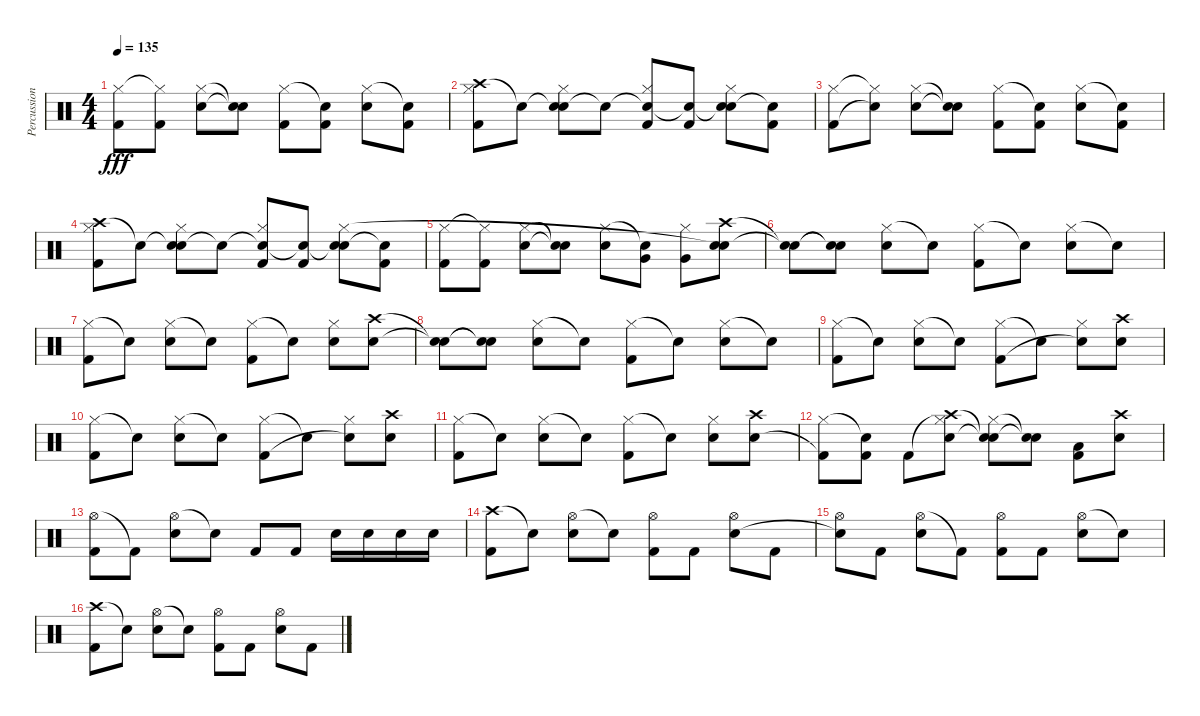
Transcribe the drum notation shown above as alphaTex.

\track ("Percussion" "Percussion") {instrument percussion}
\staff {score}
\articulation defaults
\ts (4 4)
\tempo 135
\clef neutral
\ks c
("Kick (hit) 2" "Hi-Hat (closed)").8{dy fff} ("Kick (hit) 2" "Hi-Hat (closed)"{t}).8 ("Electric Snare (hit)" "Hi-Hat (closed)").8 ("Snare (hit)"{t} "Snare (hit)"{t}).8 ("Kick (hit) 2" "Hi-Hat (closed)").8 ("Kick (hit) 2" "Snare (hit)"{t}).8 ("Electric Snare (hit)" "Hi-Hat (closed)").8 ("Kick (hit) 2" "Snare (hit)"{t}).8 |
("Crash high (hit)" "Kick (hit) 2" "Hi-Hat (closed)").8 "Snare (hit)"{t}.8 ("Snare (hit)"{t} "Electric Snare (hit)" "Hi-Hat (closed)").8 "Snare (hit)"{t}.8 ("Snare (hit)"{t} "Kick (hit) 2" "Hi-Hat (closed)").8 ("Snare (hit)"{t} "Kick (hit) 2").8 ("Snare (hit)"{t} "Electric Snare (hit)" "Hi-Hat (closed)").8 ("Snare (hit)"{t} "Kick (hit) 2").8 |
("Kick (hit) 2" "Hi-Hat (closed)").8 ("Snare (hit)"{t} "Hi-Hat (closed)"{t}).8 ("Electric Snare (hit)" "Hi-Hat (closed)").8 ("Snare (hit)"{t} "Snare (hit)"{t}).8 ("Kick (hit) 2" "Hi-Hat (closed)").8 ("Kick (hit) 2" "Snare (hit)"{t}).8 ("Electric Snare (hit)" "Hi-Hat (closed)").8 ("Kick (hit) 2" "Snare (hit)"{t}).8 |
("Crash high (hit)" "Kick (hit) 2" "Hi-Hat (closed)").8 "Snare (hit)"{t}.8 ("Snare (hit)"{t} "Electric Snare (hit)" "Hi-Hat (closed)").8 "Snare (hit)"{t}.8 ("Snare (hit)"{t} "Kick (hit) 2" "Hi-Hat (closed)").8 ("Snare (hit)"{t} "Kick (hit) 2").8 ("Snare (hit)"{t} "Electric Snare (hit)" "Hi-Hat (closed)").8 ("Snare (hit)"{t} "Kick (hit) 2").8 |
("Kick (hit) 2" "Hi-Hat (closed)").8 ("Kick (hit) 2" "Hi-Hat (closed)"{t}).8 ("Electric Snare (hit)" "Hi-Hat (closed)").8 ("Snare (hit)"{t} "Snare (hit)"{t}).8 ("Electric Snare (hit)" "Hi-Hat (closed)").8 ("Very Low Tom (hit)" "Snare (hit)"{t}).8 ("Very Low Tom (hit)" "Hi-Hat (closed)").8 ("Crash high (hit)" "Electric Snare (hit)" "Snare (hit)"{t}).8 |
("Snare (hit)"{t} "Snare (hit)"{t}).8 ("Snare (hit)"{t} "Snare (hit)"{t}).8 ("Hi-Hat (closed)" "Electric Snare (hit)").8 "Snare (hit)"{t}.8 ("Hi-Hat (closed)" "Kick (hit) 2").8 "Snare (hit)"{t}.8 ("Hi-Hat (closed)" "Electric Snare (hit)").8 "Snare (hit)"{t}.8 |
("Hi-Hat (closed)" "Kick (hit) 2").8 "Snare (hit)"{t}.8 ("Hi-Hat (closed)" "Electric Snare (hit)").8 "Snare (hit)"{t}.8 ("Hi-Hat (closed)" "Kick (hit) 2").8 "Snare (hit)"{t}.8 ("Hi-Hat (closed)" "Electric Snare (hit)").8 ("Crash high (hit)" "Electric Snare (hit)").8 |
("Snare (hit)"{t} "Snare (hit)"{t}).8 ("Snare (hit)"{t} "Snare (hit)"{t}).8 ("Hi-Hat (closed)" "Electric Snare (hit)").8 "Snare (hit)"{t}.8 ("Hi-Hat (closed)" "Kick (hit) 2").8 "Snare (hit)"{t}.8 ("Hi-Hat (closed)" "Electric Snare (hit)").8 "Snare (hit)"{t}.8 |
("Hi-Hat (closed)" "Kick (hit) 2").8 "Snare (hit)"{t}.8 ("Hi-Hat (closed)" "Electric Snare (hit)").8 "Snare (hit)"{t}.8 ("Hi-Hat (closed)" "Kick (hit) 2").8 "Snare (hit)"{t}.8 ("Hi-Hat (closed)" "Electric Snare (hit)"{t}).8 ("Crash high (hit)" "Electric Snare (hit)").8 |
("Hi-Hat (closed)" "Kick (hit) 2").8 "Snare (hit)"{t}.8 ("Hi-Hat (closed)" "Electric Snare (hit)").8 "Snare (hit)"{t}.8 ("Hi-Hat (closed)" "Kick (hit) 2").8 "Snare (hit)"{t}.8 ("Hi-Hat (closed)" "Electric Snare (hit)"{t}).8 ("Crash high (hit)" "Electric Snare (hit)").8 |
("Hi-Hat (closed)" "Kick (hit) 2").8 "Snare (hit)"{t}.8 ("Hi-Hat (closed)" "Electric Snare (hit)").8 "Snare (hit)"{t}.8 ("Hi-Hat (closed)" "Kick (hit) 2").8 "Snare (hit)"{t}.8 ("Hi-Hat (closed)" "Electric Snare (hit)").8 ("Crash high (hit)" "Electric Snare (hit)").8 |
("Hi-Hat (closed)" "Kick (hit) 2"{t}).8 ("Snare (hit)"{t} "Kick (hit) 2").8 "Kick (hit) 2".8 ("Hi-Hat (closed)"{t} "Crash high (hit)" "Electric Snare (hit)").8 ("Hi-Hat (closed)" "Snare (hit)"{t} "Snare (hit)"{t}).8 ("Snare (hit)"{t} "Snare (hit)"{t}).8 ("Kick (hit) 2" "Low Floor Tom (hit)").8 ("Crash high (hit)" "Electric Snare (hit)").8 |
("Hi-Hat (open)" "Kick (hit) 2").8 "Kick (hit) 2"{t}.8 ("Hi-Hat (open)" "Electric Snare (hit)").8 "Snare (hit)"{t}.8 "Kick (hit) 2".8 "Kick (hit) 2".8 "Electric Snare (hit)".16 "Electric Snare (hit)".16 "Electric Snare (hit)".16 "Electric Snare (hit)".16 |
("Crash high (hit)" "Kick (hit) 2").8 "Snare (hit)"{t}.8 ("Hi-Hat (open)" "Electric Snare (hit)").8 "Snare (hit)"{t}.8 ("Hi-Hat (open)" "Kick (hit) 2").8 "Kick (hit) 2".8 ("Hi-Hat (open)" "Electric Snare (hit)").8 "Kick (hit) 2".8 |
("Hi-Hat (open)" "Snare (hit)"{t}).8 "Kick (hit) 2".8 ("Hi-Hat (open)" "Electric Snare (hit)").8 "Kick (hit) 2"{t}.8 ("Hi-Hat (open)" "Kick (hit) 2").8 "Kick (hit) 2".8 ("Hi-Hat (open)" "Electric Snare (hit)").8 "Snare (hit)"{t}.8 |
("Crash high (hit)" "Kick (hit) 2").8 "Snare (hit)"{t}.8 ("Hi-Hat (open)" "Electric Snare (hit)").8 "Snare (hit)"{t}.8 ("Hi-Hat (open)" "Kick (hit) 2").8 "Kick (hit) 2".8 ("Hi-Hat (open)" "Electric Snare (hit)").8 "Kick (hit) 2".8
